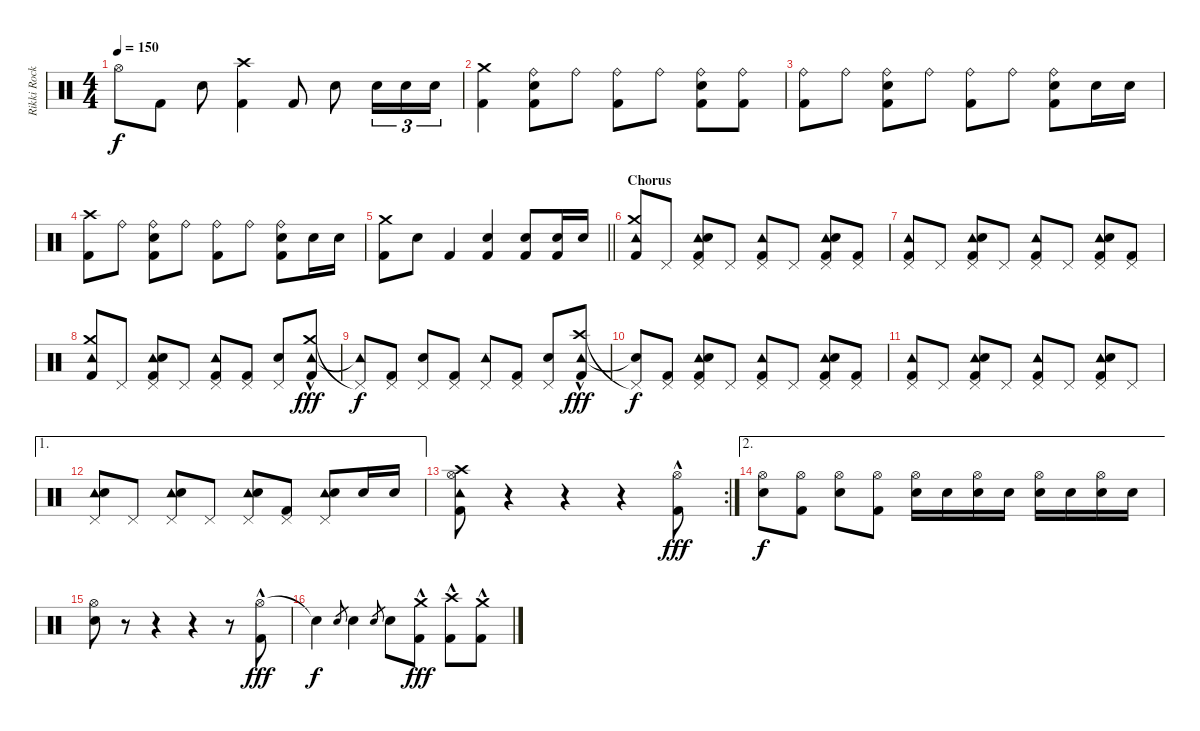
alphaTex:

\track ("Rikki Rockett - Drums" "Rikki Rock") {instrument percussion}
\staff {score}
\articulation defaults
\ts (4 4)
\tempo 150
\clef neutral
\ks c "Hi-Hat (open)"{t}.8{dy f} "Kick (hit) 2".8 "Electric Snare (hit)".8
("Crash high (hit)" "Kick (hit) 2").4 "Kick (hit) 2".8 "Electric Snare (hit)".8 "Electric Snare (hit)".16{tu (3 2)} "Electric Snare (hit)".16{tu (3 2)} "Electric Snare (hit)".16{tu (3 2)} |
("Crash medium (hit)" "Kick (hit) 2").4 ("Ride (bell)" "Electric Snare (hit)" "Kick (hit) 2").8 "Ride (bell)".8 ("Ride (bell)" "Kick (hit) 2").8 "Ride (bell)".8 ("Ride (bell)" "Electric Snare (hit)" "Kick (hit) 2").8 ("Ride (bell)" "Kick (hit) 2").8 |
("Ride (bell)" "Kick (hit) 2").8 "Ride (bell)".8 ("Ride (bell)" "Electric Snare (hit)" "Kick (hit) 2").8 "Ride (bell)".8 ("Ride (bell)" "Kick (hit) 2").8 "Ride (bell)".8 ("Ride (bell)" "Electric Snare (hit)" "Kick (hit) 2").8 "Electric Snare (hit)".16 "Electric Snare (hit)".16 |
("Crash high (hit)" "Kick (hit) 2").8 "Ride (bell)".8 ("Ride (bell)" "Electric Snare (hit)" "Kick (hit) 2").8 "Ride (bell)".8 ("Ride (bell)" "Kick (hit) 2").8 "Ride (bell)".8 ("Ride (bell)" "Electric Snare (hit)" "Kick (hit) 2").8 "Electric Snare (hit)".16 "Electric Snare (hit)".16 |
\barLineRight lightlight
("Crash medium (hit)" "Kick (hit) 2").8 "Electric Snare (hit)".8 "Kick (hit) 2".4 ("Electric Snare (hit)" "Kick (hit) 2").4 ("Electric Snare (hit)" "Kick (hit) 2").8 ("Electric Snare (hit)" "Kick (hit) 2").16 "Electric Snare (hit)".16 |
\section ("" "Chorus")
("Tambourine (hit)" "Crash medium (hit)" "Kick (hit) 2").8 "Pedal Hi-Hat (hit)".8 ("Tambourine (hit)" "Pedal Hi-Hat (hit)" "Electric Snare (hit)" "Kick (hit) 2").8 "Pedal Hi-Hat (hit)".8 ("Tambourine (hit)" "Pedal Hi-Hat (hit)" "Kick (hit) 2").8 "Pedal Hi-Hat (hit)".8 ("Tambourine (hit)" "Pedal Hi-Hat (hit)" "Electric Snare (hit)" "Kick (hit) 2").8 ("Pedal Hi-Hat (hit)" "Kick (hit) 2").8 |
("Tambourine (hit)" "Pedal Hi-Hat (hit)" "Kick (hit) 2").8 "Pedal Hi-Hat (hit)".8 ("Tambourine (hit)" "Pedal Hi-Hat (hit)" "Electric Snare (hit)" "Kick (hit) 2").8 "Pedal Hi-Hat (hit)".8 ("Tambourine (hit)" "Pedal Hi-Hat (hit)" "Kick (hit) 2").8 "Pedal Hi-Hat (hit)".8 ("Tambourine (hit)" "Pedal Hi-Hat (hit)" "Electric Snare (hit)" "Kick (hit) 2").8 ("Pedal Hi-Hat (hit)" "Kick (hit) 2").8 |
("Tambourine (hit)" "Crash medium (hit)" "Kick (hit) 2").8 "Pedal Hi-Hat (hit)".8 ("Tambourine (hit)" "Pedal Hi-Hat (hit)" "Electric Snare (hit)" "Kick (hit) 2").8 "Pedal Hi-Hat (hit)".8 ("Tambourine (hit)" "Pedal Hi-Hat (hit)" "Kick (hit) 2").8 ("Pedal Hi-Hat (hit)" "Kick (hit) 2").8 ("Pedal Hi-Hat (hit)" "Electric Snare (hit)").8 ("Tambourine (hit)"{hac} "Crash medium (hit)" "Kick (hit) 2").8{dy fff} |
("Tambourine (hit)"{t} "Pedal Hi-Hat (hit)"{t}).8{dy f} ("Pedal Hi-Hat (hit)" "Kick (hit) 2").8 ("Pedal Hi-Hat (hit)" "Electric Snare (hit)").8 ("Pedal Hi-Hat (hit)" "Kick (hit) 2").8 ("Tambourine (hit)" "Pedal Hi-Hat (hit)").8 ("Pedal Hi-Hat (hit)" "Kick (hit) 2").8 ("Pedal Hi-Hat (hit)" "Electric Snare (hit)").8 ("Tambourine (hit)"{hac} "Crash high (hit)" "Kick (hit) 2").8{dy fff} |
("Snare (hit)"{t} "Pedal Hi-Hat (hit)"{t}).8{dy f} ("Pedal Hi-Hat (hit)" "Kick (hit) 2").8 ("Tambourine (hit)" "Pedal Hi-Hat (hit)" "Electric Snare (hit)" "Kick (hit) 2").8 "Pedal Hi-Hat (hit)".8 ("Tambourine (hit)" "Pedal Hi-Hat (hit)" "Kick (hit) 2").8 "Pedal Hi-Hat (hit)".8 ("Tambourine (hit)" "Pedal Hi-Hat (hit)" "Electric Snare (hit)" "Kick (hit) 2").8 ("Pedal Hi-Hat (hit)" "Kick (hit) 2").8 |
("Tambourine (hit)" "Pedal Hi-Hat (hit)" "Kick (hit) 2").8 "Pedal Hi-Hat (hit)".8 ("Tambourine (hit)" "Pedal Hi-Hat (hit)" "Electric Snare (hit)" "Kick (hit) 2").8 "Pedal Hi-Hat (hit)".8 ("Tambourine (hit)" "Pedal Hi-Hat (hit)" "Kick (hit) 2").8 "Pedal Hi-Hat (hit)".8 ("Tambourine (hit)" "Pedal Hi-Hat (hit)" "Electric Snare (hit)" "Kick (hit) 2").8 "Pedal Hi-Hat (hit)".8 |
\ae 1
("Tambourine (hit)" "Pedal Hi-Hat (hit)" "Electric Snare (hit)").8 "Pedal Hi-Hat (hit)".8 ("Tambourine (hit)" "Pedal Hi-Hat (hit)" "Electric Snare (hit)").8 "Pedal Hi-Hat (hit)".8 ("Tambourine (hit)" "Pedal Hi-Hat (hit)" "Electric Snare (hit)").8 ("Pedal Hi-Hat (hit)" "Kick (hit) 2").8 ("Tambourine (hit)" "Pedal Hi-Hat (hit)" "Electric Snare (hit)").8 "Electric Snare (hit)".16 "Electric Snare (hit)".16 |
\rc 2
("Tambourine (hit)" "Hi-Hat (open)" "Crash high (hit)" "Kick (hit) 2").8 r.4 r.4 r.4 ("Hi-Hat (open)"{hac} "Kick (hit) 2"{hac}).8{dy fff} |
\ae 2
("Hi-Hat (open)" "Electric Snare (hit)").8{dy f} ("Hi-Hat (open)" "Kick (hit) 2").8 ("Hi-Hat (open)" "Electric Snare (hit)").8 ("Hi-Hat (open)" "Kick (hit) 2").8 ("Hi-Hat (open)" "Electric Snare (hit)").16 "Electric Snare (hit)".16 ("Hi-Hat (open)" "Electric Snare (hit)").16 "Electric Snare (hit)".16 ("Hi-Hat (open)" "Electric Snare (hit)").16 "Electric Snare (hit)".16 ("Hi-Hat (open)" "Electric Snare (hit)").16 "Electric Snare (hit)".16 |
("Hi-Hat (open)" "Electric Snare (hit)").8 r.8 r.4 r.4 r.8 ("Hi-Hat (open)"{hac} "Kick (hit) 2").8{dy fff} |
"Snare (hit)"{t}.4{dy f} "Electric Snare (hit)".8{gr} "Electric Snare (hit)".4 "Electric Snare (hit)".8{gr} "Electric Snare (hit)".8 ("Crash medium (hit)"{hac} "Kick (hit) 2"{hac}).8{dy fff} ("Crash high (hit)"{hac} "Kick (hit) 2"{hac}).8 ("Crash medium (hit)"{hac} "Kick (hit) 2"{hac}).8
